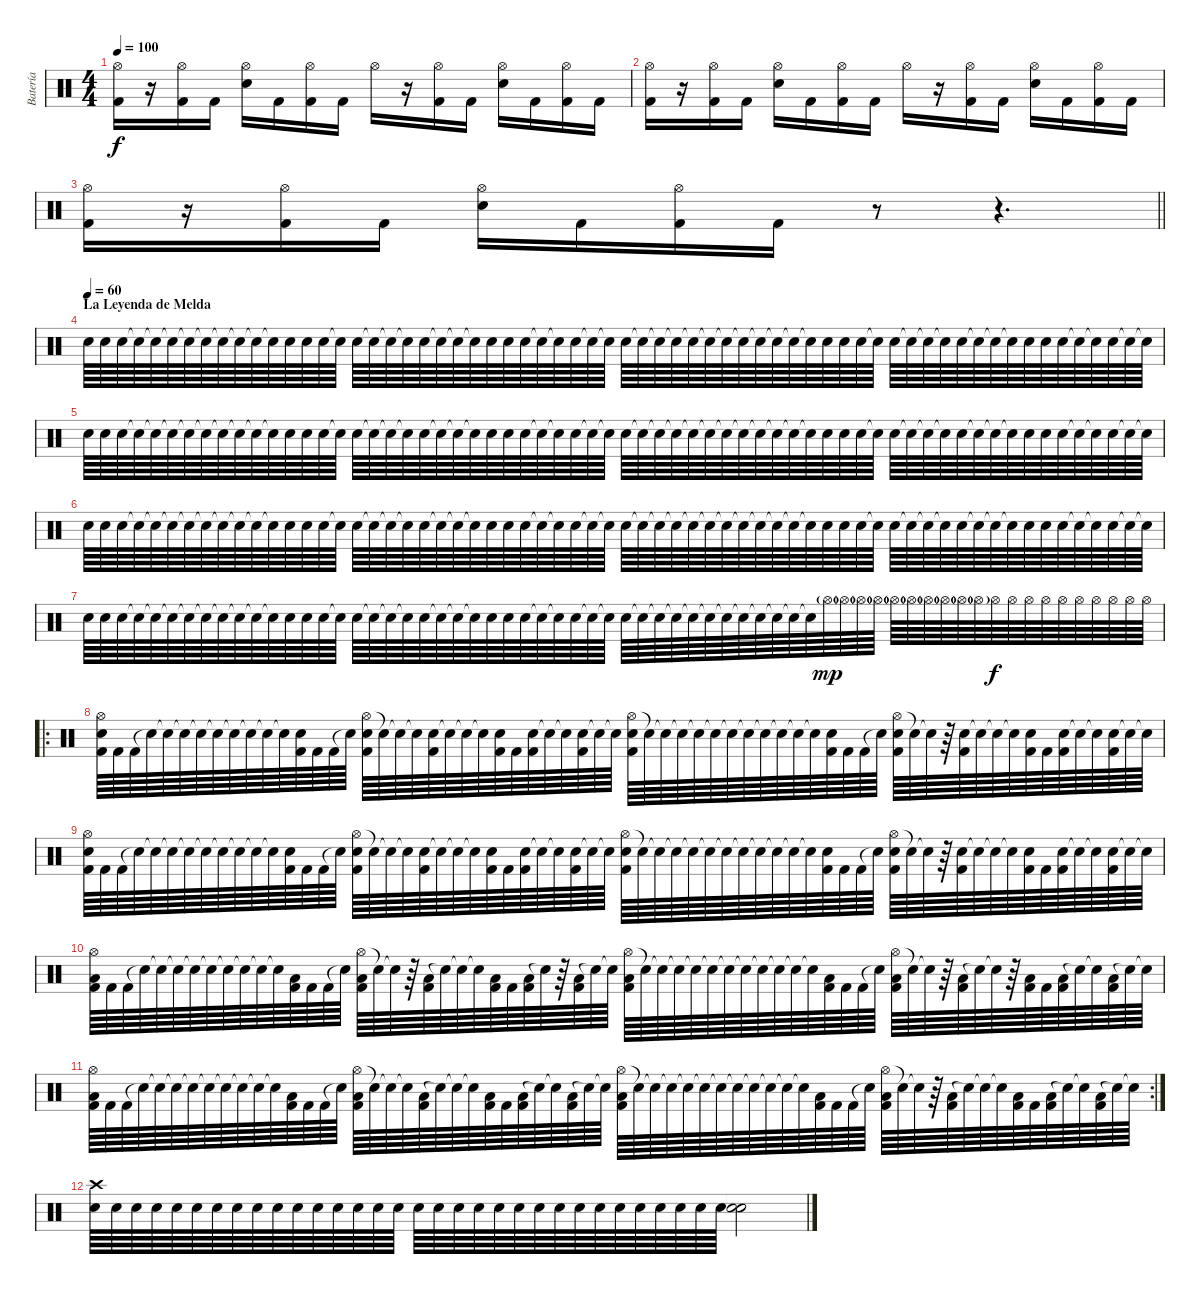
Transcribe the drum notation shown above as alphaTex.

\track ("Batería" "Batería") {instrument percussion}
\staff {score}
\articulation defaults
\ts (4 4)
\tempo 100
\clef neutral
\ks c
("Hi-Hat (open)" "Kick (hit) 2").16{dy f} r.16 ("Hi-Hat (open)" "Kick (hit) 2").16 "Kick (hit) 2".16 ("Hi-Hat (open)" "Snare (hit) 2").16 "Kick (hit) 2".16 ("Hi-Hat (open)" "Kick (hit) 2").16 "Kick (hit) 2".16 "Hi-Hat (open)".16 r.16 ("Hi-Hat (open)" "Kick (hit) 2").16 "Kick (hit) 2".16 ("Hi-Hat (open)" "Snare (hit) 2").16 "Kick (hit) 2".16 ("Hi-Hat (open)" "Kick (hit) 2").16 "Kick (hit) 2".16 |
("Hi-Hat (open)" "Kick (hit) 2").16 r.16 ("Hi-Hat (open)" "Kick (hit) 2").16 "Kick (hit) 2".16 ("Hi-Hat (open)" "Snare (hit) 2").16 "Kick (hit) 2".16 ("Hi-Hat (open)" "Kick (hit) 2").16 "Kick (hit) 2".16 "Hi-Hat (open)".16 r.16 ("Hi-Hat (open)" "Kick (hit) 2").16 "Kick (hit) 2".16 ("Hi-Hat (open)" "Snare (hit) 2").16 "Kick (hit) 2".16 ("Hi-Hat (open)" "Kick (hit) 2").16 "Kick (hit) 2".16 |
\barLineRight lightlight
("Hi-Hat (open)" "Kick (hit) 2").16 r.16 ("Hi-Hat (open)" "Kick (hit) 2").16 "Kick (hit) 2".16 ("Hi-Hat (open)" "Snare (hit) 2").16 "Kick (hit) 2".16 ("Hi-Hat (open)" "Kick (hit) 2").16 "Kick (hit) 2".16 r.8 r.4{d} |
\section ("" "La Leyenda de Melda")
\tempo (60)
"Snare (hit) 2".64 "Snare (hit) 2".64 "Snare (hit) 2".64 "Snare (hit)"{t}.64 "Snare (hit)"{t}.64 "Snare (hit)"{t}.64 "Snare (hit)"{t}.64 "Snare (hit)"{t}.64 "Snare (hit)"{t}.64 "Snare (hit)"{t}.64 "Snare (hit)"{t}.64 "Snare (hit)"{t}.64 "Snare (hit) 2".64 "Snare (hit) 2".64 "Snare (hit) 2".64 "Snare (hit)"{t}.64 "Snare (hit) 2".64 "Snare (hit) 2"{t}.64 "Snare (hit)"{t}.64 "Snare (hit)"{t}.64 "Snare (hit) 2".64 "Snare (hit) 2"{t}.64 "Snare (hit)"{t}.64 "Snare (hit)"{t}.64 "Snare (hit) 2".64 "Snare (hit) 2".64 "Snare (hit) 2".64 "Snare (hit)"{t}.64 "Snare (hit)"{t}.64 "Snare (hit) 2".64 "Snare (hit) 2"{t}.64 "Snare (hit) 2"{t}.64 "Snare (hit) 2".64 "Snare (hit)"{t}.64 "Snare (hit)"{t}.64 "Snare (hit)"{t}.64 "Snare (hit)"{t}.64 "Snare (hit)"{t}.64 "Snare (hit)"{t}.64 "Snare (hit)"{t}.64 "Snare (hit)"{t}.64 "Snare (hit)"{t}.64 "Snare (hit)"{t}.64 "Snare (hit)"{t}.64 "Snare (hit) 2".64 "Snare (hit) 2".64 "Snare (hit) 2".64 "Snare (hit)"{t}.64 "Snare (hit) 2".64 "Snare (hit)"{t}.64 "Snare (hit)"{t}.64 "Snare (hit)"{t}.64 "Snare (hit) 2".64 "Snare (hit)"{t}.64 "Snare (hit)"{t}.64 "Snare (hit)"{t}.64 "Snare (hit) 2".64 "Snare (hit) 2".64 "Snare (hit) 2".64 "Snare (hit)"{t}.64 "Snare (hit)"{t}.64 "Snare (hit) 2".64 "Snare (hit)"{t}.64 "Snare (hit)"{t}.64 |
"Snare (hit) 2".64 "Snare (hit) 2".64 "Snare (hit) 2".64 "Snare (hit)"{t}.64 "Snare (hit)"{t}.64 "Snare (hit)"{t}.64 "Snare (hit)"{t}.64 "Snare (hit)"{t}.64 "Snare (hit)"{t}.64 "Snare (hit)"{t}.64 "Snare (hit)"{t}.64 "Snare (hit)"{t}.64 "Snare (hit) 2".64 "Snare (hit) 2".64 "Snare (hit) 2".64 "Snare (hit)"{t}.64 "Snare (hit) 2".64 "Snare (hit) 2"{t}.64 "Snare (hit)"{t}.64 "Snare (hit)"{t}.64 "Snare (hit) 2".64 "Snare (hit) 2"{t}.64 "Snare (hit)"{t}.64 "Snare (hit)"{t}.64 "Snare (hit) 2".64 "Snare (hit) 2".64 "Snare (hit) 2".64 "Snare (hit)"{t}.64 "Snare (hit)"{t}.64 "Snare (hit) 2".64 "Snare (hit) 2"{t}.64 "Snare (hit) 2"{t}.64 "Snare (hit) 2".64 "Snare (hit)"{t}.64 "Snare (hit)"{t}.64 "Snare (hit)"{t}.64 "Snare (hit)"{t}.64 "Snare (hit)"{t}.64 "Snare (hit)"{t}.64 "Snare (hit)"{t}.64 "Snare (hit)"{t}.64 "Snare (hit)"{t}.64 "Snare (hit)"{t}.64 "Snare (hit)"{t}.64 "Snare (hit) 2".64 "Snare (hit) 2".64 "Snare (hit) 2".64 "Snare (hit)"{t}.64 "Snare (hit) 2".64 "Snare (hit)"{t}.64 "Snare (hit)"{t}.64 "Snare (hit)"{t}.64 "Snare (hit) 2".64 "Snare (hit)"{t}.64 "Snare (hit)"{t}.64 "Snare (hit)"{t}.64 "Snare (hit) 2".64 "Snare (hit) 2".64 "Snare (hit) 2".64 "Snare (hit)"{t}.64 "Snare (hit)"{t}.64 "Snare (hit) 2".64 "Snare (hit)"{t}.64 "Snare (hit)"{t}.64 |
"Snare (hit) 2".64 "Snare (hit) 2".64 "Snare (hit) 2".64 "Snare (hit)"{t}.64 "Snare (hit)"{t}.64 "Snare (hit)"{t}.64 "Snare (hit)"{t}.64 "Snare (hit)"{t}.64 "Snare (hit)"{t}.64 "Snare (hit)"{t}.64 "Snare (hit)"{t}.64 "Snare (hit)"{t}.64 "Snare (hit) 2".64 "Snare (hit) 2".64 "Snare (hit) 2".64 "Snare (hit)"{t}.64 "Snare (hit) 2".64 "Snare (hit) 2"{t}.64 "Snare (hit)"{t}.64 "Snare (hit)"{t}.64 "Snare (hit) 2".64 "Snare (hit) 2"{t}.64 "Snare (hit)"{t}.64 "Snare (hit)"{t}.64 "Snare (hit) 2".64 "Snare (hit) 2".64 "Snare (hit) 2".64 "Snare (hit)"{t}.64 "Snare (hit)"{t}.64 "Snare (hit) 2".64 "Snare (hit) 2"{t}.64 "Snare (hit) 2"{t}.64 "Snare (hit) 2".64 "Snare (hit)"{t}.64 "Snare (hit)"{t}.64 "Snare (hit)"{t}.64 "Snare (hit)"{t}.64 "Snare (hit)"{t}.64 "Snare (hit)"{t}.64 "Snare (hit)"{t}.64 "Snare (hit)"{t}.64 "Snare (hit)"{t}.64 "Snare (hit)"{t}.64 "Snare (hit)"{t}.64 "Snare (hit) 2".64 "Snare (hit) 2".64 "Snare (hit) 2".64 "Snare (hit)"{t}.64 "Snare (hit) 2".64 "Snare (hit)"{t}.64 "Snare (hit)"{t}.64 "Snare (hit)"{t}.64 "Snare (hit) 2".64 "Snare (hit)"{t}.64 "Snare (hit)"{t}.64 "Snare (hit)"{t}.64 "Snare (hit) 2".64 "Snare (hit) 2".64 "Snare (hit) 2".64 "Snare (hit)"{t}.64 "Snare (hit)"{t}.64 "Snare (hit) 2".64 "Snare (hit)"{t}.64 "Snare (hit)"{t}.64 |
"Snare (hit) 2".64 "Snare (hit) 2".64 "Snare (hit) 2".64 "Snare (hit)"{t}.64 "Snare (hit)"{t}.64 "Snare (hit)"{t}.64 "Snare (hit)"{t}.64 "Snare (hit)"{t}.64 "Snare (hit)"{t}.64 "Snare (hit)"{t}.64 "Snare (hit)"{t}.64 "Snare (hit)"{t}.64 "Snare (hit) 2".64 "Snare (hit) 2".64 "Snare (hit) 2".64 "Snare (hit)"{t}.64 "Snare (hit) 2".64 "Snare (hit) 2"{t}.64 "Snare (hit)"{t}.64 "Snare (hit)"{t}.64 "Snare (hit) 2".64 "Snare (hit) 2"{t}.64 "Snare (hit)"{t}.64 "Snare (hit)"{t}.64 "Snare (hit) 2".64 "Snare (hit) 2".64 "Snare (hit) 2".64 "Snare (hit)"{t}.64 "Snare (hit)"{t}.64 "Snare (hit) 2".64 "Snare (hit) 2"{t}.64 "Snare (hit) 2"{t}.64 "Snare (hit) 2".64 "Snare (hit)"{t}.64 "Snare (hit)"{t}.64 "Snare (hit)"{t}.64 "Snare (hit)"{t}.64 "Snare (hit)"{t}.64 "Snare (hit)"{t}.64 "Snare (hit)"{t}.64 "Snare (hit)"{t}.64 "Snare (hit)"{t}.64 "Snare (hit)"{t}.64 "Snare (hit)"{t}.64 "Hi-Hat (open)"{g}.64{dy mp} "Hi-Hat (open)"{g}.64 "Hi-Hat (open)"{g}.64 "Hi-Hat (open)"{g}.64 "Hi-Hat (open)"{g}.64 "Hi-Hat (open)"{g}.64 "Hi-Hat (open)"{g}.64 "Hi-Hat (open)"{g}.64 "Hi-Hat (open)"{g}.64 "Hi-Hat (open)"{g}.64 "Hi-Hat (open)".64{dy f} "Hi-Hat (open)".64 "Hi-Hat (open)".64 "Hi-Hat (open)".64 "Hi-Hat (open)".64 "Hi-Hat (open)".64 "Hi-Hat (open)".64 "Hi-Hat (open)".64 "Hi-Hat (open)".64 "Hi-Hat (open)".64 |
\ro
("Hi-Hat (open)" "Snare (hit) 2" "Kick (hit) 2").64 "Kick (hit) 2".64 "Kick (hit) 2".64 "Snare (hit)"{t}.64 "Snare (hit)"{t}.64 "Snare (hit)"{t}.64 "Snare (hit)"{t}.64 "Snare (hit)"{t}.64 "Snare (hit)"{t}.64 "Snare (hit)"{t}.64 "Snare (hit)"{t}.64 "Snare (hit)"{t}.64 ("Snare (hit) 2" "Kick (hit) 2").64 "Kick (hit) 2".64 "Kick (hit) 2".64 "Snare (hit)"{t}.64 ("Hi-Hat (open)" "Snare (hit) 2" "Kick (hit) 2").64 "Snare (hit) 2"{t}.64 "Snare (hit)"{t}.64 "Snare (hit)"{t}.64 ("Snare (hit) 2" "Kick (hit) 2").64 "Snare (hit) 2"{t}.64 "Snare (hit)"{t}.64 "Snare (hit)"{t}.64 ("Snare (hit) 2" "Kick (hit) 2").64 "Kick (hit) 2".64 ("Snare (hit) 2" "Kick (hit) 2").64 "Snare (hit)"{t}.64 "Snare (hit)"{t}.64 ("Snare (hit) 2" "Kick (hit) 2").64 "Snare (hit) 2"{t}.64 "Snare (hit) 2"{t}.64 ("Hi-Hat (open)" "Snare (hit) 2" "Kick (hit) 2").64 "Snare (hit)"{t}.64 "Snare (hit)"{t}.64 "Snare (hit)"{t}.64 "Snare (hit)"{t}.64 "Snare (hit)"{t}.64 "Snare (hit)"{t}.64 "Snare (hit)"{t}.64 "Snare (hit)"{t}.64 "Snare (hit)"{t}.64 "Snare (hit)"{t}.64 "Snare (hit)"{t}.64 ("Snare (hit) 2" "Kick (hit) 2").64 "Kick (hit) 2".64 "Kick (hit) 2".64 "Snare (hit)"{t}.64 ("Hi-Hat (open)" "Snare (hit) 2" "Kick (hit) 2").64 "Snare (hit)"{t}.64 "Snare (hit)"{t}.64 r.64 ("Snare (hit) 2" "Kick (hit) 2").64 "Snare (hit)"{t}.64 "Snare (hit)"{t}.64 "Snare (hit)"{t}.64 ("Snare (hit) 2" "Kick (hit) 2").64 "Kick (hit) 2".64 ("Snare (hit) 2" "Kick (hit) 2").64 "Snare (hit)"{t}.64 "Snare (hit)"{t}.64 ("Snare (hit) 2" "Kick (hit) 2").64 "Snare (hit)"{t}.64 "Snare (hit)"{t}.64 |
("Hi-Hat (open)" "Snare (hit) 2" "Kick (hit) 2").64 "Kick (hit) 2".64 "Kick (hit) 2".64 "Snare (hit)"{t}.64 "Snare (hit)"{t}.64 "Snare (hit)"{t}.64 "Snare (hit)"{t}.64 "Snare (hit)"{t}.64 "Snare (hit)"{t}.64 "Snare (hit)"{t}.64 "Snare (hit)"{t}.64 "Snare (hit)"{t}.64 ("Snare (hit) 2" "Kick (hit) 2").64 "Kick (hit) 2".64 "Kick (hit) 2".64 "Snare (hit)"{t}.64 ("Hi-Hat (open)" "Snare (hit) 2" "Kick (hit) 2").64 "Snare (hit) 2"{t}.64 "Snare (hit)"{t}.64 "Snare (hit)"{t}.64 ("Snare (hit) 2" "Kick (hit) 2").64 "Snare (hit) 2"{t}.64 "Snare (hit)"{t}.64 "Snare (hit)"{t}.64 ("Snare (hit) 2" "Kick (hit) 2").64 "Kick (hit) 2".64 ("Snare (hit) 2" "Kick (hit) 2").64 "Snare (hit)"{t}.64 "Snare (hit)"{t}.64 ("Snare (hit) 2" "Kick (hit) 2").64 "Snare (hit) 2"{t}.64 "Snare (hit) 2"{t}.64 ("Hi-Hat (open)" "Snare (hit) 2" "Kick (hit) 2").64 "Snare (hit)"{t}.64 "Snare (hit)"{t}.64 "Snare (hit)"{t}.64 "Snare (hit)"{t}.64 "Snare (hit)"{t}.64 "Snare (hit)"{t}.64 "Snare (hit)"{t}.64 "Snare (hit)"{t}.64 "Snare (hit)"{t}.64 "Snare (hit)"{t}.64 "Snare (hit)"{t}.64 ("Snare (hit) 2" "Kick (hit) 2").64 "Kick (hit) 2".64 "Kick (hit) 2".64 "Snare (hit)"{t}.64 ("Hi-Hat (open)" "Snare (hit) 2" "Kick (hit) 2").64 "Snare (hit)"{t}.64 "Snare (hit)"{t}.64 r.64 ("Snare (hit) 2" "Kick (hit) 2").64 "Snare (hit)"{t}.64 "Snare (hit)"{t}.64 "Snare (hit)"{t}.64 ("Snare (hit) 2" "Kick (hit) 2").64 "Kick (hit) 2".64 ("Snare (hit) 2" "Kick (hit) 2").64 "Snare (hit)"{t}.64 "Snare (hit)"{t}.64 ("Snare (hit) 2" "Kick (hit) 2").64 "Snare (hit)"{t}.64 "Snare (hit)"{t}.64 |
("Hi-Hat (open)" "Low Tom (hit)" "Kick (hit) 2").64 "Kick (hit) 2".64 "Kick (hit) 2".64 "Snare (hit)"{t}.64 "Snare (hit)"{t}.64 "Snare (hit)"{t}.64 "Snare (hit)"{t}.64 "Snare (hit)"{t}.64 "Snare (hit)"{t}.64 "Snare (hit)"{t}.64 "Snare (hit)"{t}.64 "Snare (hit)"{t}.64 ("Low Tom (hit)" "Kick (hit) 2").64 "Kick (hit) 2".64 "Kick (hit) 2".64 "Snare (hit)"{t}.64 ("Hi-Hat (open)" "Low Tom (hit)" "Kick (hit) 2").64 "Snare (hit) 2"{t}.64 "Snare (hit)"{t}.64 r.64 ("Low Tom (hit)" "Kick (hit) 2").64 "Snare (hit) 2"{t}.64 "Snare (hit)"{t}.64 "Snare (hit)"{t}.64 ("Low Tom (hit)" "Kick (hit) 2").64 "Kick (hit) 2".64 ("Low Tom (hit)" "Kick (hit) 2").64 "Snare (hit)"{t}.64 r.64 ("Low Tom (hit)" "Kick (hit) 2").64 "Snare (hit) 2"{t}.64 "Snare (hit) 2"{t}.64 ("Hi-Hat (open)" "Low Tom (hit)" "Kick (hit) 2").64 "Snare (hit)"{t}.64 "Snare (hit)"{t}.64 "Snare (hit)"{t}.64 "Snare (hit)"{t}.64 "Snare (hit)"{t}.64 "Snare (hit)"{t}.64 "Snare (hit)"{t}.64 "Snare (hit)"{t}.64 "Snare (hit)"{t}.64 "Snare (hit)"{t}.64 "Snare (hit)"{t}.64 ("Low Tom (hit)" "Kick (hit) 2").64 "Kick (hit) 2".64 "Kick (hit) 2".64 "Snare (hit)"{t}.64 ("Hi-Hat (open)" "Low Tom (hit)" "Kick (hit) 2").64 "Snare (hit)"{t}.64 "Snare (hit)"{t}.64 r.64 ("Low Tom (hit)" "Kick (hit) 2").64 "Snare (hit)"{t}.64 "Snare (hit)"{t}.64 r.64 ("Low Tom (hit)" "Kick (hit) 2").64 "Kick (hit) 2".64 ("Low Tom (hit)" "Kick (hit) 2").64 "Snare (hit)"{t}.64 "Snare (hit)"{t}.64 ("Low Tom (hit)" "Kick (hit) 2").64 "Snare (hit)"{t}.64 "Snare (hit)"{t}.64 |
\rc 2
("Hi-Hat (open)" "Low Tom (hit)" "Kick (hit) 2").64 "Kick (hit) 2".64 "Kick (hit) 2".64 "Snare (hit)"{t}.64 "Snare (hit)"{t}.64 "Snare (hit)"{t}.64 "Snare (hit)"{t}.64 "Snare (hit)"{t}.64 "Snare (hit)"{t}.64 "Snare (hit)"{t}.64 "Snare (hit)"{t}.64 "Snare (hit)"{t}.64 ("Low Tom (hit)" "Kick (hit) 2").64 "Kick (hit) 2".64 "Kick (hit) 2".64 "Snare (hit)"{t}.64 ("Hi-Hat (open)" "Low Tom (hit)" "Kick (hit) 2").64 "Snare (hit) 2"{t}.64 "Snare (hit)"{t}.64 "Snare (hit)"{t}.64 ("Low Tom (hit)" "Kick (hit) 2").64 "Snare (hit) 2"{t}.64 "Snare (hit)"{t}.64 "Snare (hit)"{t}.64 ("Low Tom (hit)" "Kick (hit) 2").64 "Kick (hit) 2".64 ("Low Tom (hit)" "Kick (hit) 2").64 "Snare (hit)"{t}.64 "Snare (hit)"{t}.64 ("Low Tom (hit)" "Kick (hit) 2").64 "Snare (hit) 2"{t}.64 "Snare (hit) 2"{t}.64 ("Hi-Hat (open)" "Low Tom (hit)" "Kick (hit) 2").64 "Snare (hit)"{t}.64 "Snare (hit)"{t}.64 "Snare (hit)"{t}.64 "Snare (hit)"{t}.64 "Snare (hit)"{t}.64 "Snare (hit)"{t}.64 "Snare (hit)"{t}.64 "Snare (hit)"{t}.64 "Snare (hit)"{t}.64 "Snare (hit)"{t}.64 "Snare (hit)"{t}.64 ("Low Tom (hit)" "Kick (hit) 2").64 "Kick (hit) 2".64 "Kick (hit) 2".64 "Snare (hit)"{t}.64 ("Hi-Hat (open)" "Low Tom (hit)" "Kick (hit) 2").64 "Snare (hit)"{t}.64 "Snare (hit)"{t}.64 r.64 ("Low Tom (hit)" "Kick (hit) 2").64 "Snare (hit)"{t}.64 "Snare (hit)"{t}.64 "Snare (hit)"{t}.64 ("Low Tom (hit)" "Kick (hit) 2").64 "Kick (hit) 2".64 ("Low Tom (hit)" "Kick (hit) 2").64 "Snare (hit)"{t}.64 "Snare (hit)"{t}.64 ("Low Tom (hit)" "Kick (hit) 2").64 "Snare (hit)"{t}.64 "Snare (hit)"{t}.64 |
("Crash high (hit)" "Snare (hit) 2").64 "Snare (hit) 2".64 "Snare (hit) 2".64 "Snare (hit) 2".64 "Snare (hit) 2".64 "Snare (hit) 2".64 "Snare (hit) 2".64 "Snare (hit) 2".64 "Snare (hit) 2".64 "Snare (hit) 2".64 "Snare (hit) 2".64 "Snare (hit) 2".64 "Snare (hit) 2".64 "Snare (hit) 2".64 "Snare (hit) 2".64 "Snare (hit) 2".64 "Snare (hit) 2".64 "Snare (hit) 2".64 "Snare (hit) 2".64 "Snare (hit) 2".64 "Snare (hit) 2".64 "Snare (hit) 2".64 "Snare (hit) 2".64 "Snare (hit) 2".64 "Snare (hit) 2".64 "Snare (hit) 2".64 "Snare (hit) 2".64 "Snare (hit) 2".64 "Snare (hit) 2".64 "Snare (hit) 2".64 "Snare (hit) 2".64 "Snare (hit) 2".64 ("Snare (hit)"{t} "Snare (hit) 2").2
